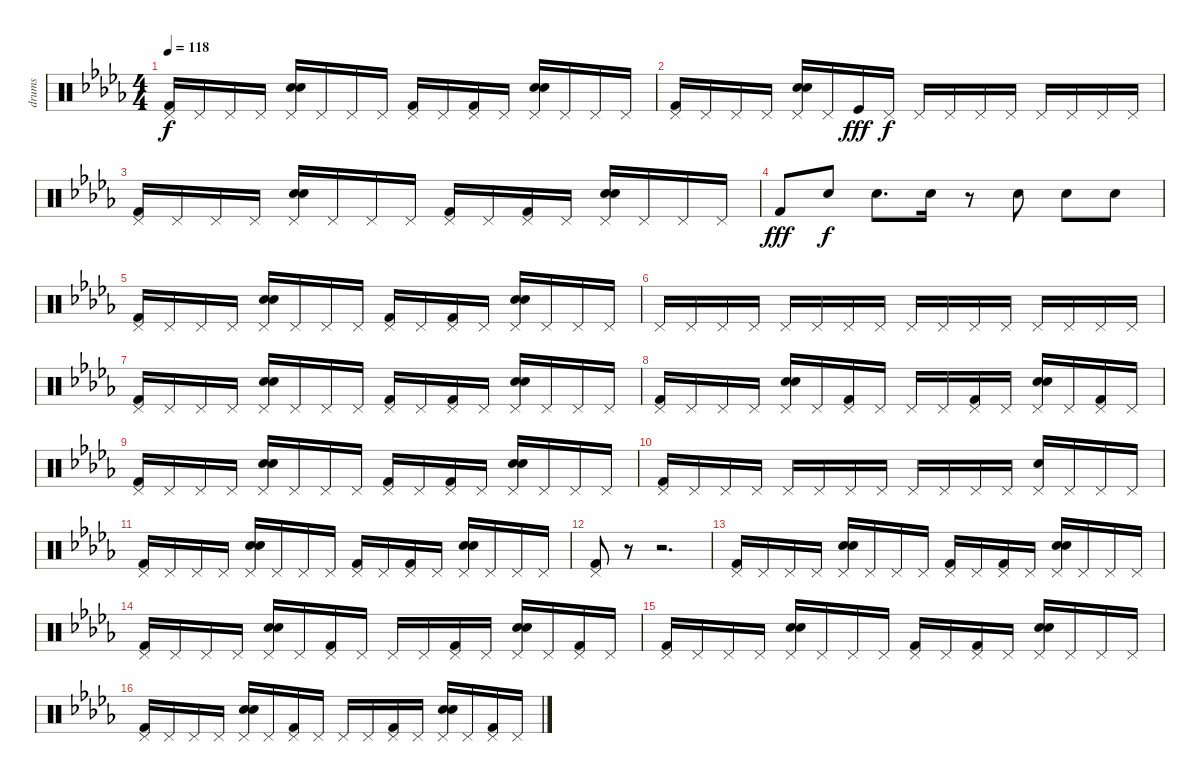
\track ("drums" "drums") {instrument percussion}
\staff {score}
\articulation defaults
\ts (4 4)
\tempo 118
\clef neutral
\ks db
("Pedal Hi-Hat (hit)" "Kick (hit) 2").16{dy f} "Pedal Hi-Hat (hit)".16 "Pedal Hi-Hat (hit)".16 "Pedal Hi-Hat (hit)".16 ("Pedal Hi-Hat (hit)" "Hand Clap (hit)" "Snare (hit) 2").16 "Pedal Hi-Hat (hit)".16 "Pedal Hi-Hat (hit)".16 "Pedal Hi-Hat (hit)".16 ("Pedal Hi-Hat (hit)" "Kick (hit) 2").16 "Pedal Hi-Hat (hit)".16 ("Pedal Hi-Hat (hit)" "Kick (hit) 2").16 "Pedal Hi-Hat (hit)".16 ("Pedal Hi-Hat (hit)" "Hand Clap (hit)" "Snare (hit) 2").16 "Pedal Hi-Hat (hit)".16 "Pedal Hi-Hat (hit)".16 "Pedal Hi-Hat (hit)".16 |
("Pedal Hi-Hat (hit)" "Kick (hit) 2").16 "Pedal Hi-Hat (hit)".16 "Pedal Hi-Hat (hit)".16 "Pedal Hi-Hat (hit)".16 ("Pedal Hi-Hat (hit)" "Hand Clap (hit)" "Snare (hit) 2").16 "Pedal Hi-Hat (hit)".16 "Kick (hit)".16{dy fff} "Pedal Hi-Hat (hit)".16{dy f} "Pedal Hi-Hat (hit)".16 "Pedal Hi-Hat (hit)".16 "Pedal Hi-Hat (hit)".16 "Pedal Hi-Hat (hit)".16 "Pedal Hi-Hat (hit)".16 "Pedal Hi-Hat (hit)".16 "Pedal Hi-Hat (hit)".16 "Pedal Hi-Hat (hit)".16 |
("Pedal Hi-Hat (hit)" "Kick (hit) 2").16 "Pedal Hi-Hat (hit)".16 "Pedal Hi-Hat (hit)".16 "Pedal Hi-Hat (hit)".16 ("Pedal Hi-Hat (hit)" "Hand Clap (hit)" "Snare (hit) 2").16 "Pedal Hi-Hat (hit)".16 "Pedal Hi-Hat (hit)".16 "Pedal Hi-Hat (hit)".16 ("Pedal Hi-Hat (hit)" "Kick (hit) 2").16 "Pedal Hi-Hat (hit)".16 ("Pedal Hi-Hat (hit)" "Kick (hit) 2").16 "Pedal Hi-Hat (hit)".16 ("Pedal Hi-Hat (hit)" "Hand Clap (hit)" "Snare (hit) 2").16 "Pedal Hi-Hat (hit)".16 "Pedal Hi-Hat (hit)".16 "Pedal Hi-Hat (hit)".16 |
"Kick (hit) 2".8{dy fff} "Snare (hit) 2".8{dy f} "Snare (hit) 2".8{d} "Snare (hit) 2".16 r.8 "Snare (hit) 2".8 "Snare (hit) 2".8 "Snare (hit) 2".8 |
("Pedal Hi-Hat (hit)" "Kick (hit) 2").16 "Pedal Hi-Hat (hit)".16 "Pedal Hi-Hat (hit)".16 "Pedal Hi-Hat (hit)".16 ("Pedal Hi-Hat (hit)" "Hand Clap (hit)" "Snare (hit) 2").16 "Pedal Hi-Hat (hit)".16 "Pedal Hi-Hat (hit)".16 "Pedal Hi-Hat (hit)".16 ("Pedal Hi-Hat (hit)" "Kick (hit) 2").16 "Pedal Hi-Hat (hit)".16 ("Pedal Hi-Hat (hit)" "Kick (hit) 2").16 "Pedal Hi-Hat (hit)".16 ("Pedal Hi-Hat (hit)" "Hand Clap (hit)" "Snare (hit) 2").16 "Pedal Hi-Hat (hit)".16 "Pedal Hi-Hat (hit)".16 "Pedal Hi-Hat (hit)".16 |
"Pedal Hi-Hat (hit)".16 "Pedal Hi-Hat (hit)".16 "Pedal Hi-Hat (hit)".16 "Pedal Hi-Hat (hit)".16 "Pedal Hi-Hat (hit)".16 "Pedal Hi-Hat (hit)".16 "Pedal Hi-Hat (hit)".16 "Pedal Hi-Hat (hit)".16 "Pedal Hi-Hat (hit)".16 "Pedal Hi-Hat (hit)".16 "Pedal Hi-Hat (hit)".16 "Pedal Hi-Hat (hit)".16 "Pedal Hi-Hat (hit)".16 "Pedal Hi-Hat (hit)".16 "Pedal Hi-Hat (hit)".16 "Pedal Hi-Hat (hit)".16 |
("Pedal Hi-Hat (hit)" "Kick (hit) 2").16 "Pedal Hi-Hat (hit)".16 "Pedal Hi-Hat (hit)".16 "Pedal Hi-Hat (hit)".16 ("Pedal Hi-Hat (hit)" "Hand Clap (hit)" "Snare (hit) 2").16 "Pedal Hi-Hat (hit)".16 "Pedal Hi-Hat (hit)".16 "Pedal Hi-Hat (hit)".16 ("Pedal Hi-Hat (hit)" "Kick (hit) 2").16 "Pedal Hi-Hat (hit)".16 ("Pedal Hi-Hat (hit)" "Kick (hit) 2").16 "Pedal Hi-Hat (hit)".16 ("Pedal Hi-Hat (hit)" "Hand Clap (hit)" "Snare (hit) 2").16 "Pedal Hi-Hat (hit)".16 "Pedal Hi-Hat (hit)".16 "Pedal Hi-Hat (hit)".16 |
("Pedal Hi-Hat (hit)" "Kick (hit) 2").16 "Pedal Hi-Hat (hit)".16 "Pedal Hi-Hat (hit)".16 "Pedal Hi-Hat (hit)".16 ("Pedal Hi-Hat (hit)" "Hand Clap (hit)" "Snare (hit) 2").16 "Pedal Hi-Hat (hit)".16 ("Pedal Hi-Hat (hit)" "Kick (hit) 2").16 "Pedal Hi-Hat (hit)".16 "Pedal Hi-Hat (hit)".16 "Pedal Hi-Hat (hit)".16 ("Pedal Hi-Hat (hit)" "Kick (hit) 2").16 "Pedal Hi-Hat (hit)".16 ("Pedal Hi-Hat (hit)" "Hand Clap (hit)" "Snare (hit) 2").16 "Pedal Hi-Hat (hit)".16 ("Pedal Hi-Hat (hit)" "Kick (hit) 2").16 "Pedal Hi-Hat (hit)".16 |
("Pedal Hi-Hat (hit)" "Kick (hit) 2").16 "Pedal Hi-Hat (hit)".16 "Pedal Hi-Hat (hit)".16 "Pedal Hi-Hat (hit)".16 ("Pedal Hi-Hat (hit)" "Hand Clap (hit)" "Snare (hit) 2").16 "Pedal Hi-Hat (hit)".16 "Pedal Hi-Hat (hit)".16 "Pedal Hi-Hat (hit)".16 ("Pedal Hi-Hat (hit)" "Kick (hit) 2").16 "Pedal Hi-Hat (hit)".16 ("Pedal Hi-Hat (hit)" "Kick (hit) 2").16 "Pedal Hi-Hat (hit)".16 ("Pedal Hi-Hat (hit)" "Hand Clap (hit)" "Snare (hit) 2").16 "Pedal Hi-Hat (hit)".16 "Pedal Hi-Hat (hit)".16 "Pedal Hi-Hat (hit)".16 |
("Pedal Hi-Hat (hit)" "Kick (hit) 2").16 "Pedal Hi-Hat (hit)".16 "Pedal Hi-Hat (hit)".16 "Pedal Hi-Hat (hit)".16 "Pedal Hi-Hat (hit)".16 "Pedal Hi-Hat (hit)".16 "Pedal Hi-Hat (hit)".16 "Pedal Hi-Hat (hit)".16 "Pedal Hi-Hat (hit)".16 "Pedal Hi-Hat (hit)".16 "Pedal Hi-Hat (hit)".16 "Pedal Hi-Hat (hit)".16 ("Pedal Hi-Hat (hit)" "Snare (hit) 2").16 "Pedal Hi-Hat (hit)".16 "Pedal Hi-Hat (hit)".16 "Pedal Hi-Hat (hit)".16 |
("Pedal Hi-Hat (hit)" "Kick (hit) 2").16 "Pedal Hi-Hat (hit)".16 "Pedal Hi-Hat (hit)".16 "Pedal Hi-Hat (hit)".16 ("Pedal Hi-Hat (hit)" "Hand Clap (hit)" "Snare (hit) 2").16 "Pedal Hi-Hat (hit)".16 "Pedal Hi-Hat (hit)".16 "Pedal Hi-Hat (hit)".16 ("Pedal Hi-Hat (hit)" "Kick (hit) 2").16 "Pedal Hi-Hat (hit)".16 ("Pedal Hi-Hat (hit)" "Kick (hit) 2").16 "Pedal Hi-Hat (hit)".16 ("Pedal Hi-Hat (hit)" "Hand Clap (hit)" "Snare (hit) 2").16 "Pedal Hi-Hat (hit)".16 "Pedal Hi-Hat (hit)".16 "Pedal Hi-Hat (hit)".16 |
("Pedal Hi-Hat (hit)" "Kick (hit) 2").8 r.8 r.2{d} |
("Pedal Hi-Hat (hit)" "Kick (hit) 2").16 "Pedal Hi-Hat (hit)".16 "Pedal Hi-Hat (hit)".16 "Pedal Hi-Hat (hit)".16 ("Pedal Hi-Hat (hit)" "Hand Clap (hit)" "Snare (hit) 2").16 "Pedal Hi-Hat (hit)".16 "Pedal Hi-Hat (hit)".16 "Pedal Hi-Hat (hit)".16 ("Pedal Hi-Hat (hit)" "Kick (hit) 2").16 "Pedal Hi-Hat (hit)".16 ("Pedal Hi-Hat (hit)" "Kick (hit) 2").16 "Pedal Hi-Hat (hit)".16 ("Pedal Hi-Hat (hit)" "Hand Clap (hit)" "Snare (hit) 2").16 "Pedal Hi-Hat (hit)".16 "Pedal Hi-Hat (hit)".16 "Pedal Hi-Hat (hit)".16 |
("Pedal Hi-Hat (hit)" "Kick (hit) 2").16 "Pedal Hi-Hat (hit)".16 "Pedal Hi-Hat (hit)".16 "Pedal Hi-Hat (hit)".16 ("Pedal Hi-Hat (hit)" "Hand Clap (hit)" "Snare (hit) 2").16 "Pedal Hi-Hat (hit)".16 ("Pedal Hi-Hat (hit)" "Kick (hit) 2").16 "Pedal Hi-Hat (hit)".16 "Pedal Hi-Hat (hit)".16 "Pedal Hi-Hat (hit)".16 ("Pedal Hi-Hat (hit)" "Kick (hit) 2").16 "Pedal Hi-Hat (hit)".16 ("Pedal Hi-Hat (hit)" "Hand Clap (hit)" "Snare (hit) 2").16 "Pedal Hi-Hat (hit)".16 ("Pedal Hi-Hat (hit)" "Kick (hit) 2").16 "Pedal Hi-Hat (hit)".16 |
("Pedal Hi-Hat (hit)" "Kick (hit) 2").16 "Pedal Hi-Hat (hit)".16 "Pedal Hi-Hat (hit)".16 "Pedal Hi-Hat (hit)".16 ("Pedal Hi-Hat (hit)" "Hand Clap (hit)" "Snare (hit) 2").16 "Pedal Hi-Hat (hit)".16 "Pedal Hi-Hat (hit)".16 "Pedal Hi-Hat (hit)".16 ("Pedal Hi-Hat (hit)" "Kick (hit) 2").16 "Pedal Hi-Hat (hit)".16 ("Pedal Hi-Hat (hit)" "Kick (hit) 2").16 "Pedal Hi-Hat (hit)".16 ("Pedal Hi-Hat (hit)" "Hand Clap (hit)" "Snare (hit) 2").16 "Pedal Hi-Hat (hit)".16 "Pedal Hi-Hat (hit)".16 "Pedal Hi-Hat (hit)".16 |
("Pedal Hi-Hat (hit)" "Kick (hit) 2").16 "Pedal Hi-Hat (hit)".16 "Pedal Hi-Hat (hit)".16 "Pedal Hi-Hat (hit)".16 ("Pedal Hi-Hat (hit)" "Hand Clap (hit)" "Snare (hit) 2").16 "Pedal Hi-Hat (hit)".16 ("Pedal Hi-Hat (hit)" "Kick (hit) 2").16 "Pedal Hi-Hat (hit)".16 "Pedal Hi-Hat (hit)".16 "Pedal Hi-Hat (hit)".16 ("Pedal Hi-Hat (hit)" "Kick (hit) 2").16 "Pedal Hi-Hat (hit)".16 ("Pedal Hi-Hat (hit)" "Hand Clap (hit)" "Snare (hit) 2").16 "Pedal Hi-Hat (hit)".16 ("Pedal Hi-Hat (hit)" "Kick (hit) 2").16 "Pedal Hi-Hat (hit)".16
